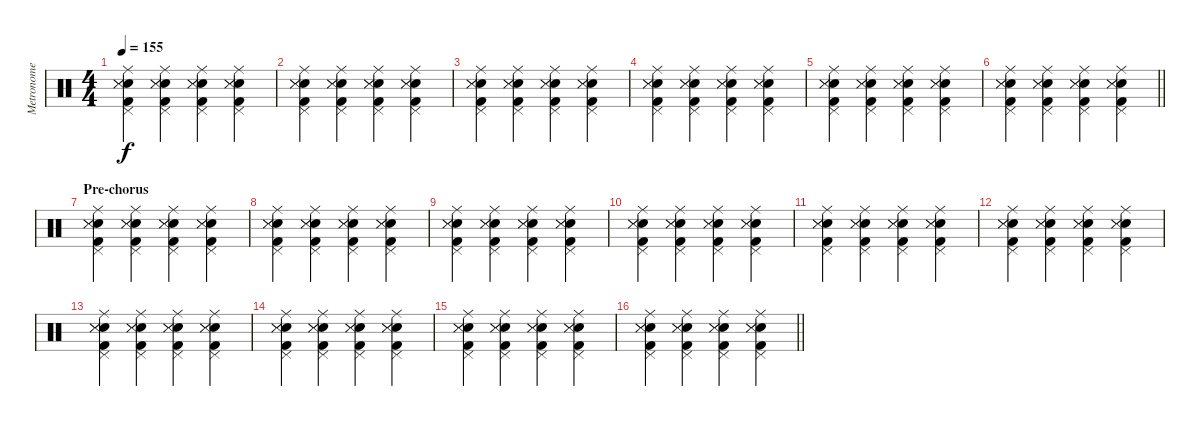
\track ("Metronome" "Metronome") {mute instrument percussion}
\staff {score}
\articulation defaults
\ts (4 4)
\tempo 155
\clef neutral
\ks c
("Ride (middle)" "Pedal Hi-Hat (hit)" "Electric Snare (hit)" "Snare (side stick) 3" "Metronome (hit)" "Kick (hit) 2").4{dy f} ("Ride (middle)" "Pedal Hi-Hat (hit)" "Electric Snare (hit)" "Snare (side stick) 3" "Metronome (hit)" "Kick (hit) 2").4 ("Ride (middle)" "Pedal Hi-Hat (hit)" "Electric Snare (hit)" "Snare (side stick) 3" "Metronome (hit)" "Kick (hit) 2").4 ("Ride (middle)" "Pedal Hi-Hat (hit)" "Electric Snare (hit)" "Snare (side stick) 3" "Metronome (hit)" "Kick (hit) 2").4 |
("Ride (middle)" "Pedal Hi-Hat (hit)" "Electric Snare (hit)" "Snare (side stick) 3" "Metronome (hit)" "Kick (hit) 2").4 ("Ride (middle)" "Pedal Hi-Hat (hit)" "Electric Snare (hit)" "Snare (side stick) 3" "Metronome (hit)" "Kick (hit) 2").4 ("Ride (middle)" "Pedal Hi-Hat (hit)" "Electric Snare (hit)" "Snare (side stick) 3" "Metronome (hit)" "Kick (hit) 2").4 ("Ride (middle)" "Pedal Hi-Hat (hit)" "Electric Snare (hit)" "Snare (side stick) 3" "Metronome (hit)" "Kick (hit) 2").4 |
("Ride (middle)" "Pedal Hi-Hat (hit)" "Electric Snare (hit)" "Snare (side stick) 3" "Metronome (hit)" "Kick (hit) 2").4 ("Ride (middle)" "Pedal Hi-Hat (hit)" "Electric Snare (hit)" "Snare (side stick) 3" "Metronome (hit)" "Kick (hit) 2").4 ("Ride (middle)" "Pedal Hi-Hat (hit)" "Electric Snare (hit)" "Snare (side stick) 3" "Metronome (hit)" "Kick (hit) 2").4 ("Ride (middle)" "Pedal Hi-Hat (hit)" "Electric Snare (hit)" "Snare (side stick) 3" "Metronome (hit)" "Kick (hit) 2").4 |
("Ride (middle)" "Pedal Hi-Hat (hit)" "Electric Snare (hit)" "Snare (side stick) 3" "Metronome (hit)" "Kick (hit) 2").4 ("Ride (middle)" "Pedal Hi-Hat (hit)" "Electric Snare (hit)" "Snare (side stick) 3" "Metronome (hit)" "Kick (hit) 2").4 ("Ride (middle)" "Pedal Hi-Hat (hit)" "Electric Snare (hit)" "Snare (side stick) 3" "Metronome (hit)" "Kick (hit) 2").4 ("Ride (middle)" "Pedal Hi-Hat (hit)" "Electric Snare (hit)" "Snare (side stick) 3" "Metronome (hit)" "Kick (hit) 2").4 |
("Ride (middle)" "Pedal Hi-Hat (hit)" "Electric Snare (hit)" "Snare (side stick) 3" "Metronome (hit)" "Kick (hit) 2").4 ("Ride (middle)" "Pedal Hi-Hat (hit)" "Electric Snare (hit)" "Snare (side stick) 3" "Metronome (hit)" "Kick (hit) 2").4 ("Ride (middle)" "Pedal Hi-Hat (hit)" "Electric Snare (hit)" "Snare (side stick) 3" "Metronome (hit)" "Kick (hit) 2").4 ("Ride (middle)" "Pedal Hi-Hat (hit)" "Electric Snare (hit)" "Snare (side stick) 3" "Metronome (hit)" "Kick (hit) 2").4 |
\barLineRight lightlight
("Ride (middle)" "Pedal Hi-Hat (hit)" "Electric Snare (hit)" "Snare (side stick) 3" "Metronome (hit)" "Kick (hit) 2").4 ("Ride (middle)" "Pedal Hi-Hat (hit)" "Electric Snare (hit)" "Snare (side stick) 3" "Metronome (hit)" "Kick (hit) 2").4 ("Ride (middle)" "Pedal Hi-Hat (hit)" "Electric Snare (hit)" "Snare (side stick) 3" "Metronome (hit)" "Kick (hit) 2").4 ("Ride (middle)" "Pedal Hi-Hat (hit)" "Electric Snare (hit)" "Snare (side stick) 3" "Metronome (hit)" "Kick (hit) 2").4 |
\section ("" "Pre-chorus")
("Ride (middle)" "Pedal Hi-Hat (hit)" "Electric Snare (hit)" "Snare (side stick) 3" "Metronome (hit)" "Kick (hit) 2").4 ("Ride (middle)" "Pedal Hi-Hat (hit)" "Electric Snare (hit)" "Snare (side stick) 3" "Metronome (hit)" "Kick (hit) 2").4 ("Ride (middle)" "Pedal Hi-Hat (hit)" "Electric Snare (hit)" "Snare (side stick) 3" "Metronome (hit)" "Kick (hit) 2").4 ("Ride (middle)" "Pedal Hi-Hat (hit)" "Electric Snare (hit)" "Snare (side stick) 3" "Metronome (hit)" "Kick (hit) 2").4 |
("Ride (middle)" "Pedal Hi-Hat (hit)" "Electric Snare (hit)" "Snare (side stick) 3" "Metronome (hit)" "Kick (hit) 2").4 ("Ride (middle)" "Pedal Hi-Hat (hit)" "Electric Snare (hit)" "Snare (side stick) 3" "Metronome (hit)" "Kick (hit) 2").4 ("Ride (middle)" "Pedal Hi-Hat (hit)" "Electric Snare (hit)" "Snare (side stick) 3" "Metronome (hit)" "Kick (hit) 2").4 ("Ride (middle)" "Pedal Hi-Hat (hit)" "Electric Snare (hit)" "Snare (side stick) 3" "Metronome (hit)" "Kick (hit) 2").4 |
("Ride (middle)" "Pedal Hi-Hat (hit)" "Electric Snare (hit)" "Snare (side stick) 3" "Metronome (hit)" "Kick (hit) 2").4 ("Ride (middle)" "Pedal Hi-Hat (hit)" "Electric Snare (hit)" "Snare (side stick) 3" "Metronome (hit)" "Kick (hit) 2").4 ("Ride (middle)" "Pedal Hi-Hat (hit)" "Electric Snare (hit)" "Snare (side stick) 3" "Metronome (hit)" "Kick (hit) 2").4 ("Ride (middle)" "Pedal Hi-Hat (hit)" "Electric Snare (hit)" "Snare (side stick) 3" "Metronome (hit)" "Kick (hit) 2").4 |
("Ride (middle)" "Pedal Hi-Hat (hit)" "Electric Snare (hit)" "Snare (side stick) 3" "Metronome (hit)" "Kick (hit) 2").4 ("Ride (middle)" "Pedal Hi-Hat (hit)" "Electric Snare (hit)" "Snare (side stick) 3" "Metronome (hit)" "Kick (hit) 2").4 ("Ride (middle)" "Pedal Hi-Hat (hit)" "Electric Snare (hit)" "Snare (side stick) 3" "Metronome (hit)" "Kick (hit) 2").4 ("Ride (middle)" "Pedal Hi-Hat (hit)" "Electric Snare (hit)" "Snare (side stick) 3" "Metronome (hit)" "Kick (hit) 2").4 |
("Ride (middle)" "Pedal Hi-Hat (hit)" "Electric Snare (hit)" "Snare (side stick) 3" "Metronome (hit)" "Kick (hit) 2").4 ("Ride (middle)" "Pedal Hi-Hat (hit)" "Electric Snare (hit)" "Snare (side stick) 3" "Metronome (hit)" "Kick (hit) 2").4 ("Ride (middle)" "Pedal Hi-Hat (hit)" "Electric Snare (hit)" "Snare (side stick) 3" "Metronome (hit)" "Kick (hit) 2").4 ("Ride (middle)" "Pedal Hi-Hat (hit)" "Electric Snare (hit)" "Snare (side stick) 3" "Metronome (hit)" "Kick (hit) 2").4 |
("Ride (middle)" "Pedal Hi-Hat (hit)" "Electric Snare (hit)" "Snare (side stick) 3" "Metronome (hit)" "Kick (hit) 2").4 ("Ride (middle)" "Pedal Hi-Hat (hit)" "Electric Snare (hit)" "Snare (side stick) 3" "Metronome (hit)" "Kick (hit) 2").4 ("Ride (middle)" "Pedal Hi-Hat (hit)" "Electric Snare (hit)" "Snare (side stick) 3" "Metronome (hit)" "Kick (hit) 2").4 ("Ride (middle)" "Pedal Hi-Hat (hit)" "Electric Snare (hit)" "Snare (side stick) 3" "Metronome (hit)" "Kick (hit) 2").4 |
("Ride (middle)" "Pedal Hi-Hat (hit)" "Electric Snare (hit)" "Snare (side stick) 3" "Metronome (hit)" "Kick (hit) 2").4 ("Ride (middle)" "Pedal Hi-Hat (hit)" "Electric Snare (hit)" "Snare (side stick) 3" "Metronome (hit)" "Kick (hit) 2").4 ("Ride (middle)" "Pedal Hi-Hat (hit)" "Electric Snare (hit)" "Snare (side stick) 3" "Metronome (hit)" "Kick (hit) 2").4 ("Ride (middle)" "Pedal Hi-Hat (hit)" "Electric Snare (hit)" "Snare (side stick) 3" "Metronome (hit)" "Kick (hit) 2").4 |
("Ride (middle)" "Pedal Hi-Hat (hit)" "Electric Snare (hit)" "Snare (side stick) 3" "Metronome (hit)" "Kick (hit) 2").4 ("Ride (middle)" "Pedal Hi-Hat (hit)" "Electric Snare (hit)" "Snare (side stick) 3" "Metronome (hit)" "Kick (hit) 2").4 ("Ride (middle)" "Pedal Hi-Hat (hit)" "Electric Snare (hit)" "Snare (side stick) 3" "Metronome (hit)" "Kick (hit) 2").4 ("Ride (middle)" "Pedal Hi-Hat (hit)" "Electric Snare (hit)" "Snare (side stick) 3" "Metronome (hit)" "Kick (hit) 2").4 |
("Ride (middle)" "Pedal Hi-Hat (hit)" "Electric Snare (hit)" "Snare (side stick) 3" "Metronome (hit)" "Kick (hit) 2").4 ("Ride (middle)" "Pedal Hi-Hat (hit)" "Electric Snare (hit)" "Snare (side stick) 3" "Metronome (hit)" "Kick (hit) 2").4 ("Ride (middle)" "Pedal Hi-Hat (hit)" "Electric Snare (hit)" "Snare (side stick) 3" "Metronome (hit)" "Kick (hit) 2").4 ("Ride (middle)" "Pedal Hi-Hat (hit)" "Electric Snare (hit)" "Snare (side stick) 3" "Metronome (hit)" "Kick (hit) 2").4 |
\barLineRight lightlight
("Ride (middle)" "Pedal Hi-Hat (hit)" "Electric Snare (hit)" "Snare (side stick) 3" "Metronome (hit)" "Kick (hit) 2").4 ("Ride (middle)" "Pedal Hi-Hat (hit)" "Electric Snare (hit)" "Snare (side stick) 3" "Metronome (hit)" "Kick (hit) 2").4 ("Ride (middle)" "Pedal Hi-Hat (hit)" "Electric Snare (hit)" "Snare (side stick) 3" "Metronome (hit)" "Kick (hit) 2").4 ("Ride (middle)" "Pedal Hi-Hat (hit)" "Electric Snare (hit)" "Snare (side stick) 3" "Metronome (hit)" "Kick (hit) 2").4
